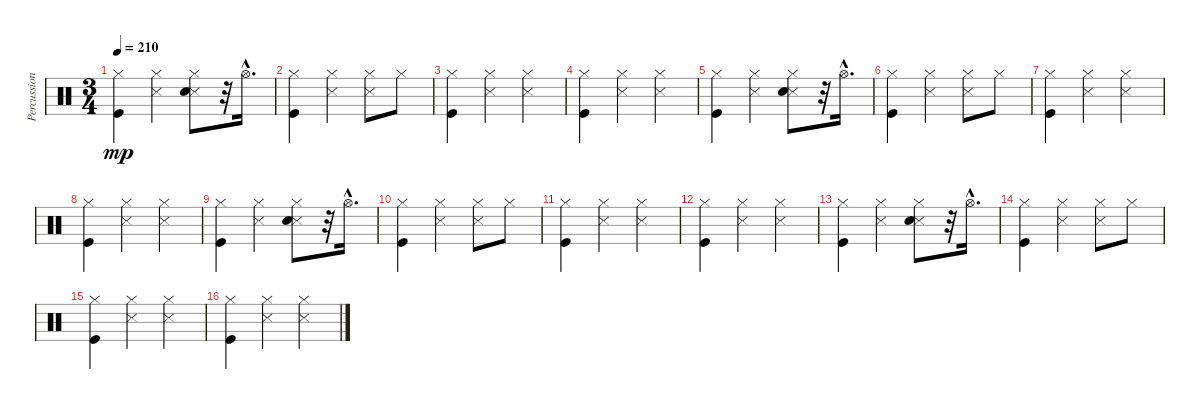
\track ("Percussion" "Percussion") {instrument percussion}
\staff {score}
\articulation defaults
\ts (3 4)
\tempo 210
\clef neutral
\ks c
("Kick (hit)" "Hi-Hat (closed)").4{dy mp} ("Snare (side stick) 3" "Hi-Hat (closed)").4 ("Snare (side stick) 3" "Snare (hit) 2" "Hi-Hat (closed)").8 r.32 "Hi-Hat (open)"{hac}.16{d} |
("Kick (hit)" "Hi-Hat (closed)").4 ("Snare (side stick) 3" "Hi-Hat (closed)").4 ("Snare (side stick) 3" "Hi-Hat (closed)").8 "Hi-Hat (closed)".8 |
("Kick (hit)" "Hi-Hat (closed)").4 ("Snare (side stick) 3" "Hi-Hat (closed)").4 ("Snare (side stick) 3" "Hi-Hat (closed)").4 |
("Kick (hit)" "Hi-Hat (closed)").4 ("Snare (side stick) 3" "Hi-Hat (closed)").4 ("Snare (side stick) 3" "Hi-Hat (closed)").4 |
("Kick (hit)" "Hi-Hat (closed)").4 ("Snare (side stick) 3" "Hi-Hat (closed)").4 ("Snare (side stick) 3" "Snare (hit) 2" "Hi-Hat (closed)").8 r.32 "Hi-Hat (open)"{hac}.16{d} |
("Kick (hit)" "Hi-Hat (closed)").4 ("Snare (side stick) 3" "Hi-Hat (closed)").4 ("Snare (side stick) 3" "Hi-Hat (closed)").8 "Hi-Hat (closed)".8 |
("Kick (hit)" "Hi-Hat (closed)").4 ("Snare (side stick) 3" "Hi-Hat (closed)").4 ("Snare (side stick) 3" "Hi-Hat (closed)").4 |
("Kick (hit)" "Hi-Hat (closed)").4 ("Snare (side stick) 3" "Hi-Hat (closed)").4 ("Snare (side stick) 3" "Hi-Hat (closed)").4 |
("Kick (hit)" "Hi-Hat (closed)").4 ("Snare (side stick) 3" "Hi-Hat (closed)").4 ("Snare (side stick) 3" "Snare (hit) 2" "Hi-Hat (closed)").8 r.32 "Hi-Hat (open)"{hac}.16{d} |
("Kick (hit)" "Hi-Hat (closed)").4 ("Snare (side stick) 3" "Hi-Hat (closed)").4 ("Snare (side stick) 3" "Hi-Hat (closed)").8 "Hi-Hat (closed)".8 |
("Kick (hit)" "Hi-Hat (closed)").4 ("Snare (side stick) 3" "Hi-Hat (closed)").4 ("Snare (side stick) 3" "Hi-Hat (closed)").4 |
("Kick (hit)" "Hi-Hat (closed)").4 ("Snare (side stick) 3" "Hi-Hat (closed)").4 ("Snare (side stick) 3" "Hi-Hat (closed)").4 |
("Kick (hit)" "Hi-Hat (closed)").4 ("Snare (side stick) 3" "Hi-Hat (closed)").4 ("Snare (side stick) 3" "Snare (hit) 2" "Hi-Hat (closed)").8 r.32 "Hi-Hat (open)"{hac}.16{d} |
("Kick (hit)" "Hi-Hat (closed)").4 ("Snare (side stick) 3" "Hi-Hat (closed)").4 ("Snare (side stick) 3" "Hi-Hat (closed)").8 "Hi-Hat (closed)".8 |
("Kick (hit)" "Hi-Hat (closed)").4 ("Snare (side stick) 3" "Hi-Hat (closed)").4 ("Snare (side stick) 3" "Hi-Hat (closed)").4 |
("Kick (hit)" "Hi-Hat (closed)").4 ("Snare (side stick) 3" "Hi-Hat (closed)").4 ("Snare (side stick) 3" "Hi-Hat (closed)").4
